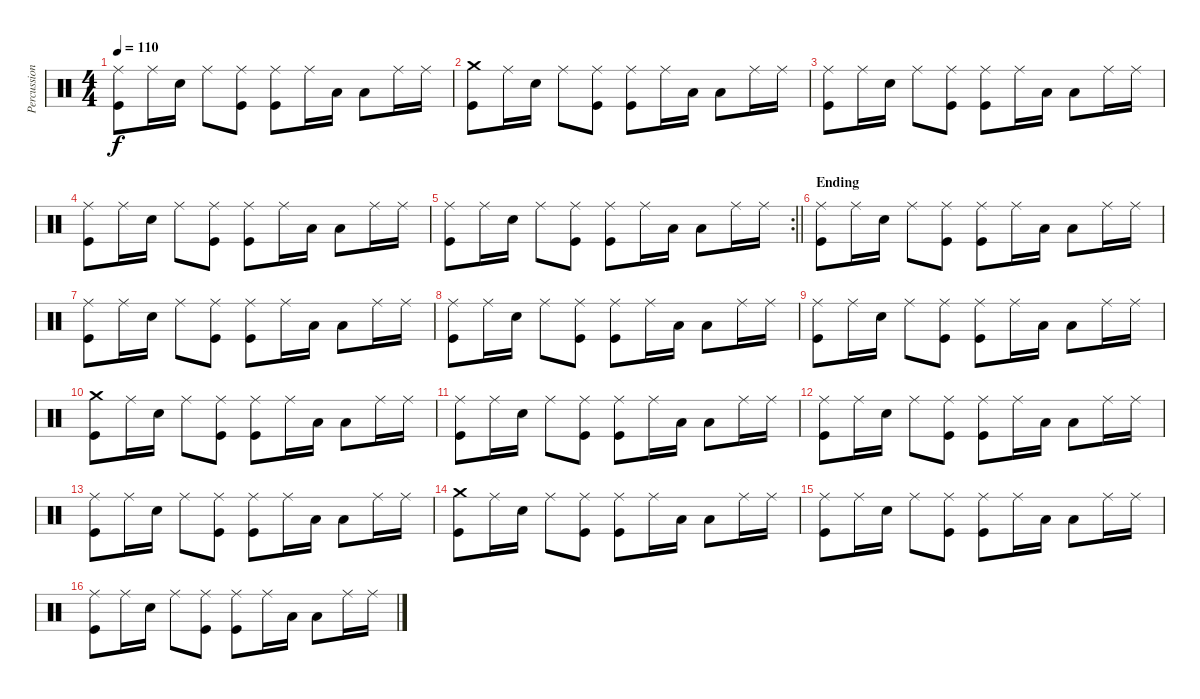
\track ("Percussion" "Percussion") {instrument percussion}
\staff {score}
\articulation defaults
\ts (4 4)
\tempo 110
\clef neutral
\ks c
("Ride (middle)" "Kick (hit)").8{dy f} "Ride (middle)".16 "Snare (hit) 2".16 "Ride (middle)".8 ("Ride (middle)" "Kick (hit)").8 ("Ride (middle)" "Kick (hit)").8 "Ride (middle)".16 "Low Floor Tom (hit)".16 "Low Floor Tom (hit)".8 "Ride (middle)".16 "Ride (middle)".16 |
("Crash medium (hit)" "Kick (hit)").8 "Ride (middle)".16 "Snare (hit) 2".16 "Ride (middle)".8 ("Ride (middle)" "Kick (hit)").8 ("Ride (middle)" "Kick (hit)").8 "Ride (middle)".16 "Low Floor Tom (hit)".16 "Low Floor Tom (hit)".8 "Ride (middle)".16 "Ride (middle)".16 |
("Ride (middle)" "Kick (hit)").8 "Ride (middle)".16 "Snare (hit) 2".16 "Ride (middle)".8 ("Ride (middle)" "Kick (hit)").8 ("Ride (middle)" "Kick (hit)").8 "Ride (middle)".16 "Low Floor Tom (hit)".16 "Low Floor Tom (hit)".8 "Ride (middle)".16 "Ride (middle)".16 |
("Ride (middle)" "Kick (hit)").8 "Ride (middle)".16 "Snare (hit) 2".16 "Ride (middle)".8 ("Ride (middle)" "Kick (hit)").8 ("Ride (middle)" "Kick (hit)").8 "Ride (middle)".16 "Low Floor Tom (hit)".16 "Low Floor Tom (hit)".8 "Ride (middle)".16 "Ride (middle)".16 |
\rc 2
\barLineRight lightlight
("Ride (middle)" "Kick (hit)").8 "Ride (middle)".16 "Snare (hit) 2".16 "Ride (middle)".8 ("Ride (middle)" "Kick (hit)").8 ("Ride (middle)" "Kick (hit)").8 "Ride (middle)".16 "Low Floor Tom (hit)".16 "Low Floor Tom (hit)".8 "Ride (middle)".16 "Ride (middle)".16 |
\section ("" "Ending")
("Ride (middle)" "Kick (hit)").8 "Ride (middle)".16 "Snare (hit) 2".16 "Ride (middle)".8 ("Ride (middle)" "Kick (hit)").8 ("Ride (middle)" "Kick (hit)").8 "Ride (middle)".16 "Low Floor Tom (hit)".16 "Low Floor Tom (hit)".8 "Ride (middle)".16 "Ride (middle)".16 |
("Ride (middle)" "Kick (hit)").8 "Ride (middle)".16 "Snare (hit) 2".16 "Ride (middle)".8 ("Ride (middle)" "Kick (hit)").8 ("Ride (middle)" "Kick (hit)").8 "Ride (middle)".16 "Low Floor Tom (hit)".16 "Low Floor Tom (hit)".8 "Ride (middle)".16 "Ride (middle)".16 |
("Ride (middle)" "Kick (hit)").8 "Ride (middle)".16 "Snare (hit) 2".16 "Ride (middle)".8 ("Ride (middle)" "Kick (hit)").8 ("Ride (middle)" "Kick (hit)").8 "Ride (middle)".16 "Low Floor Tom (hit)".16 "Low Floor Tom (hit)".8 "Ride (middle)".16 "Ride (middle)".16 |
("Ride (middle)" "Kick (hit)").8 "Ride (middle)".16 "Snare (hit) 2".16 "Ride (middle)".8 ("Ride (middle)" "Kick (hit)").8 ("Ride (middle)" "Kick (hit)").8 "Ride (middle)".16 "Low Floor Tom (hit)".16 "Low Floor Tom (hit)".8 "Ride (middle)".16 "Ride (middle)".16 |
("Crash medium (hit)" "Kick (hit)").8 "Ride (middle)".16 "Snare (hit) 2".16 "Ride (middle)".8 ("Ride (middle)" "Kick (hit)").8 ("Ride (middle)" "Kick (hit)").8 "Ride (middle)".16 "Low Floor Tom (hit)".16 "Low Floor Tom (hit)".8 "Ride (middle)".16 "Ride (middle)".16 |
("Ride (middle)" "Kick (hit)").8 "Ride (middle)".16 "Snare (hit) 2".16 "Ride (middle)".8 ("Ride (middle)" "Kick (hit)").8 ("Ride (middle)" "Kick (hit)").8 "Ride (middle)".16 "Low Floor Tom (hit)".16 "Low Floor Tom (hit)".8 "Ride (middle)".16 "Ride (middle)".16 |
("Ride (middle)" "Kick (hit)").8 "Ride (middle)".16 "Snare (hit) 2".16 "Ride (middle)".8 ("Ride (middle)" "Kick (hit)").8 ("Ride (middle)" "Kick (hit)").8 "Ride (middle)".16 "Low Floor Tom (hit)".16 "Low Floor Tom (hit)".8 "Ride (middle)".16 "Ride (middle)".16 |
("Ride (middle)" "Kick (hit)").8 "Ride (middle)".16 "Snare (hit) 2".16 "Ride (middle)".8 ("Ride (middle)" "Kick (hit)").8 ("Ride (middle)" "Kick (hit)").8 "Ride (middle)".16 "Low Floor Tom (hit)".16 "Low Floor Tom (hit)".8 "Ride (middle)".16 "Ride (middle)".16 |
("Crash medium (hit)" "Kick (hit)").8 "Ride (middle)".16 "Snare (hit) 2".16 "Ride (middle)".8 ("Ride (middle)" "Kick (hit)").8 ("Ride (middle)" "Kick (hit)").8 "Ride (middle)".16 "Low Floor Tom (hit)".16 "Low Floor Tom (hit)".8 "Ride (middle)".16 "Ride (middle)".16 |
("Ride (middle)" "Kick (hit)").8 "Ride (middle)".16 "Snare (hit) 2".16 "Ride (middle)".8 ("Ride (middle)" "Kick (hit)").8 ("Ride (middle)" "Kick (hit)").8 "Ride (middle)".16 "Low Floor Tom (hit)".16 "Low Floor Tom (hit)".8 "Ride (middle)".16 "Ride (middle)".16 |
("Ride (middle)" "Kick (hit)").8 "Ride (middle)".16 "Snare (hit) 2".16 "Ride (middle)".8 ("Ride (middle)" "Kick (hit)").8 ("Ride (middle)" "Kick (hit)").8 "Ride (middle)".16 "Low Floor Tom (hit)".16 "Low Floor Tom (hit)".8 "Ride (middle)".16 "Ride (middle)".16
